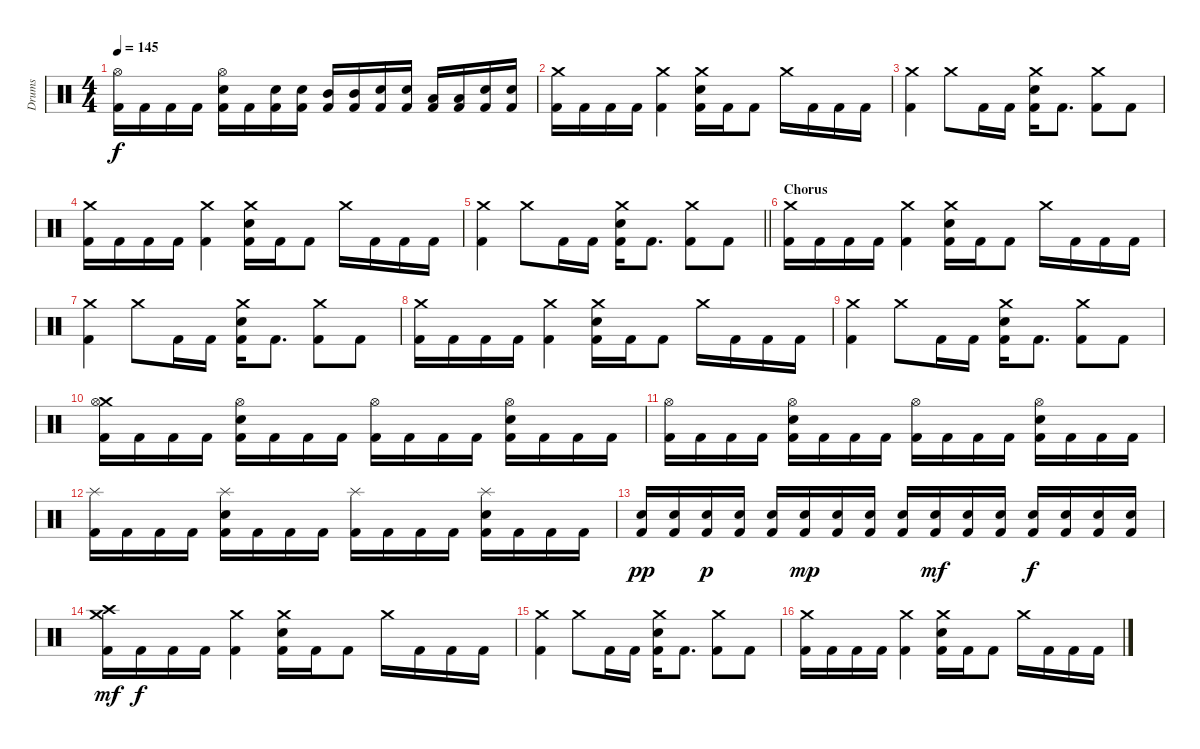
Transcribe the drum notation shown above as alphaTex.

\track ("Drums" "Drums") {instrument percussion}
\staff {score}
\articulation defaults
\ts (4 4)
\tempo 145
\clef neutral
\ks c
("Hi-Hat (open)" "Kick (hit) 2").16{dy f} "Kick (hit) 2".16 "Kick (hit) 2".16 "Kick (hit) 2".16 ("Hi-Hat (open)" "Electric Snare (hit)" "Kick (hit) 2").16 "Kick (hit) 2".16 ("Electric Snare (hit)" "Kick (hit) 2").16 ("Electric Snare (hit)" "Kick (hit) 2").16 ("Mid Tom (hit)" "Kick (hit) 2").16 ("Mid Tom (hit)" "Kick (hit) 2").16 ("Electric Snare (hit)" "Kick (hit) 2").16 ("Electric Snare (hit)" "Kick (hit) 2").16 ("Low Tom (hit)" "Kick (hit) 2").16 ("Low Tom (hit)" "Kick (hit) 2").16 ("Electric Snare (hit)" "Kick (hit) 2").16 ("Electric Snare (hit)" "Kick (hit) 2").16 |
("Crash medium (hit)" "Kick (hit) 2").16 "Kick (hit) 2".16 "Kick (hit) 2".16 "Kick (hit) 2".16 ("Crash medium (hit)" "Kick (hit) 2").4 ("Crash medium (hit)" "Electric Snare (hit)" "Kick (hit) 2").16 "Kick (hit) 2".16 "Kick (hit) 2".8 "Crash medium (hit)".16 "Kick (hit) 2".16 "Kick (hit) 2".16 "Kick (hit) 2".16 |
("Crash medium (hit)" "Kick (hit) 2").4 "Crash medium (hit)".8 "Kick (hit) 2".16 "Kick (hit) 2".16 ("Crash medium (hit)" "Electric Snare (hit)" "Kick (hit) 2").16 "Kick (hit) 2".8{d} ("Crash medium (hit)" "Kick (hit) 2").8 "Kick (hit) 2".8 |
("Crash medium (hit)" "Kick (hit) 2").16 "Kick (hit) 2".16 "Kick (hit) 2".16 "Kick (hit) 2".16 ("Crash medium (hit)" "Kick (hit) 2").4 ("Crash medium (hit)" "Electric Snare (hit)" "Kick (hit) 2").16 "Kick (hit) 2".16 "Kick (hit) 2".8 "Crash medium (hit)".16 "Kick (hit) 2".16 "Kick (hit) 2".16 "Kick (hit) 2".16 |
\barLineRight lightlight
("Crash medium (hit)" "Kick (hit) 2").4 "Crash medium (hit)".8 "Kick (hit) 2".16 "Kick (hit) 2".16 ("Crash medium (hit)" "Electric Snare (hit)" "Kick (hit) 2").16 "Kick (hit) 2".8{d} ("Crash medium (hit)" "Kick (hit) 2").8 "Kick (hit) 2".8 |
\section ("" "Chorus")
("Crash medium (hit)" "Kick (hit) 2").16 "Kick (hit) 2".16 "Kick (hit) 2".16 "Kick (hit) 2".16 ("Crash medium (hit)" "Kick (hit) 2").4 ("Crash medium (hit)" "Electric Snare (hit)" "Kick (hit) 2").16 "Kick (hit) 2".16 "Kick (hit) 2".8 "Crash medium (hit)".16 "Kick (hit) 2".16 "Kick (hit) 2".16 "Kick (hit) 2".16 |
("Crash medium (hit)" "Kick (hit) 2").4 "Crash medium (hit)".8 "Kick (hit) 2".16 "Kick (hit) 2".16 ("Crash medium (hit)" "Electric Snare (hit)" "Kick (hit) 2").16 "Kick (hit) 2".8{d} ("Crash medium (hit)" "Kick (hit) 2").8 "Kick (hit) 2".8 |
("Crash medium (hit)" "Kick (hit) 2").16 "Kick (hit) 2".16 "Kick (hit) 2".16 "Kick (hit) 2".16 ("Crash medium (hit)" "Kick (hit) 2").4 ("Crash medium (hit)" "Electric Snare (hit)" "Kick (hit) 2").16 "Kick (hit) 2".16 "Kick (hit) 2".8 "Crash medium (hit)".16 "Kick (hit) 2".16 "Kick (hit) 2".16 "Kick (hit) 2".16 |
("Crash medium (hit)" "Kick (hit) 2").4 "Crash medium (hit)".8 "Kick (hit) 2".16 "Kick (hit) 2".16 ("Crash medium (hit)" "Electric Snare (hit)" "Kick (hit) 2").16 "Kick (hit) 2".8{d} ("Crash medium (hit)" "Kick (hit) 2").8 "Kick (hit) 2".8 |
("Crash medium (hit)" "Hi-Hat (open)" "Kick (hit) 2").16 "Kick (hit) 2".16 "Kick (hit) 2".16 "Kick (hit) 2".16 ("Hi-Hat (open)" "Electric Snare (hit)" "Kick (hit) 2").16 "Kick (hit) 2".16 "Kick (hit) 2".16 "Kick (hit) 2".16 ("Hi-Hat (open)" "Kick (hit) 2").16 "Kick (hit) 2".16 "Kick (hit) 2".16 "Kick (hit) 2".16 ("Hi-Hat (open)" "Electric Snare (hit)" "Kick (hit) 2").16 "Kick (hit) 2".16 "Kick (hit) 2".16 "Kick (hit) 2".16 |
("Hi-Hat (open)" "Kick (hit) 2").16 "Kick (hit) 2".16 "Kick (hit) 2".16 "Kick (hit) 2".16 ("Hi-Hat (open)" "Electric Snare (hit)" "Kick (hit) 2").16 "Kick (hit) 2".16 "Kick (hit) 2".16 "Kick (hit) 2".16 ("Hi-Hat (open)" "Kick (hit) 2").16 "Kick (hit) 2".16 "Kick (hit) 2".16 "Kick (hit) 2".16 ("Hi-Hat (open)" "Electric Snare (hit)" "Kick (hit) 2").16 "Kick (hit) 2".16 "Kick (hit) 2".16 "Kick (hit) 2".16 |
("Splash (hit)" "Kick (hit) 2").16 "Kick (hit) 2".16 "Kick (hit) 2".16 "Kick (hit) 2".16 ("Splash (hit)" "Electric Snare (hit)" "Kick (hit) 2").16 "Kick (hit) 2".16 "Kick (hit) 2".16 "Kick (hit) 2".16 ("Splash (hit)" "Kick (hit) 2").16 "Kick (hit) 2".16 "Kick (hit) 2".16 "Kick (hit) 2".16 ("Splash (hit)" "Electric Snare (hit)" "Kick (hit) 2").16 "Kick (hit) 2".16 "Kick (hit) 2".16 "Kick (hit) 2".16 |
("Electric Snare (hit)" "Kick (hit) 2").16{dy pp} ("Electric Snare (hit)" "Kick (hit) 2").16 ("Electric Snare (hit)" "Kick (hit) 2").16{dy p} ("Electric Snare (hit)" "Kick (hit) 2").16 ("Electric Snare (hit)" "Kick (hit) 2").16 ("Electric Snare (hit)" "Kick (hit) 2").16{dy mp} ("Electric Snare (hit)" "Kick (hit) 2").16 ("Electric Snare (hit)" "Kick (hit) 2").16 ("Electric Snare (hit)" "Kick (hit) 2").16 ("Electric Snare (hit)" "Kick (hit) 2").16{dy mf} ("Electric Snare (hit)" "Kick (hit) 2").16 ("Electric Snare (hit)" "Kick (hit) 2").16 ("Electric Snare (hit)" "Kick (hit) 2").16{dy f} ("Electric Snare (hit)" "Kick (hit) 2").16 ("Electric Snare (hit)" "Kick (hit) 2").16 ("Electric Snare (hit)" "Kick (hit) 2").16 |
("Crash medium (hit)" "Crash high (hit)" "Kick (hit) 2").16{dy mf} "Kick (hit) 2".16{dy f} "Kick (hit) 2".16 "Kick (hit) 2".16 ("Crash medium (hit)" "Kick (hit) 2").4 ("Crash medium (hit)" "Electric Snare (hit)" "Kick (hit) 2").16 "Kick (hit) 2".16 "Kick (hit) 2".8 "Crash medium (hit)".16 "Kick (hit) 2".16 "Kick (hit) 2".16 "Kick (hit) 2".16 |
("Crash medium (hit)" "Kick (hit) 2").4 "Crash medium (hit)".8 "Kick (hit) 2".16 "Kick (hit) 2".16 ("Crash medium (hit)" "Electric Snare (hit)" "Kick (hit) 2").16 "Kick (hit) 2".8{d} ("Crash medium (hit)" "Kick (hit) 2").8 "Kick (hit) 2".8 |
("Crash medium (hit)" "Kick (hit) 2").16 "Kick (hit) 2".16 "Kick (hit) 2".16 "Kick (hit) 2".16 ("Crash medium (hit)" "Kick (hit) 2").4 ("Crash medium (hit)" "Electric Snare (hit)" "Kick (hit) 2").16 "Kick (hit) 2".16 "Kick (hit) 2".8 "Crash medium (hit)".16 "Kick (hit) 2".16 "Kick (hit) 2".16 "Kick (hit) 2".16
